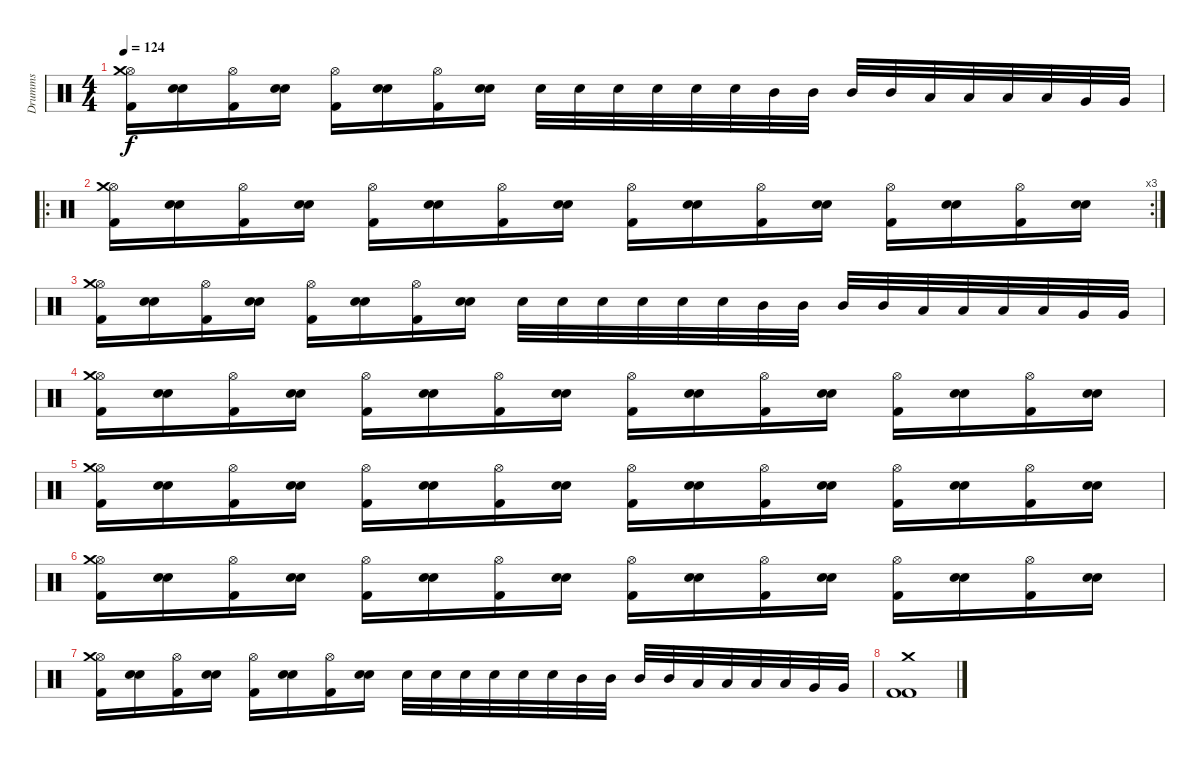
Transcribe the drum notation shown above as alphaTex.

\track ("Drumms" "Drumms") {instrument percussion}
\staff {score}
\articulation defaults
\ts (4 4)
\tempo 124
\clef neutral
\ks c
("Kick (hit) 2" "Hi-Hat (open)" "Crash medium (hit)").16{dy f} ("Snare (hit) 2" "Snare (hit) 2").16 ("Kick (hit) 2" "Hi-Hat (open)").16 ("Snare (hit) 2" "Snare (hit) 2").16 ("Kick (hit) 2" "Hi-Hat (open)").16 ("Snare (hit) 2" "Snare (hit) 2").16 ("Kick (hit) 2" "Hi-Hat (open)").16 ("Snare (hit) 2" "Snare (hit) 2").16 "Snare (hit) 2".32 "Snare (hit) 2".32 "Snare (hit) 2".32 "Snare (hit) 2".32 "Snare (hit) 2".32 "Snare (hit) 2".32 "Mid Tom (hit)".32 "Mid Tom (hit)".32 "Mid Tom (hit)".32 "Mid Tom (hit)".32 "Low Tom (hit)".32 "Low Tom (hit)".32 "Low Tom (hit)".32 "Low Tom (hit)".32 "Very Low Tom (hit)".32 "Very Low Tom (hit)".32 |
\ro
\rc 3
("Kick (hit) 2" "Hi-Hat (open)" "Crash medium (hit)").16 ("Snare (hit) 2" "Snare (hit) 2").16 ("Kick (hit) 2" "Hi-Hat (open)").16 ("Snare (hit) 2" "Snare (hit) 2").16 ("Kick (hit) 2" "Hi-Hat (open)").16 ("Snare (hit) 2" "Snare (hit) 2").16 ("Kick (hit) 2" "Hi-Hat (open)").16 ("Snare (hit) 2" "Snare (hit) 2").16 ("Kick (hit) 2" "Hi-Hat (open)").16 ("Snare (hit) 2" "Snare (hit) 2").16 ("Kick (hit) 2" "Hi-Hat (open)").16 ("Snare (hit) 2" "Snare (hit) 2").16 ("Kick (hit) 2" "Hi-Hat (open)").16 ("Snare (hit) 2" "Snare (hit) 2").16 ("Kick (hit) 2" "Hi-Hat (open)").16 ("Snare (hit) 2" "Snare (hit) 2").16 |
("Kick (hit) 2" "Hi-Hat (open)" "Crash medium (hit)").16 ("Snare (hit) 2" "Snare (hit) 2").16 ("Kick (hit) 2" "Hi-Hat (open)").16 ("Snare (hit) 2" "Snare (hit) 2").16 ("Kick (hit) 2" "Hi-Hat (open)").16 ("Snare (hit) 2" "Snare (hit) 2").16 ("Kick (hit) 2" "Hi-Hat (open)").16 ("Snare (hit) 2" "Snare (hit) 2").16 "Snare (hit) 2".32 "Snare (hit) 2".32 "Snare (hit) 2".32 "Snare (hit) 2".32 "Snare (hit) 2".32 "Snare (hit) 2".32 "Mid Tom (hit)".32 "Mid Tom (hit)".32 "Mid Tom (hit)".32 "Mid Tom (hit)".32 "Low Tom (hit)".32 "Low Tom (hit)".32 "Low Tom (hit)".32 "Low Tom (hit)".32 "Very Low Tom (hit)".32 "Very Low Tom (hit)".32 |
("Kick (hit) 2" "Hi-Hat (open)" "Crash medium (hit)").16 ("Snare (hit) 2" "Snare (hit) 2").16 ("Kick (hit) 2" "Hi-Hat (open)").16 ("Snare (hit) 2" "Snare (hit) 2").16 ("Kick (hit) 2" "Hi-Hat (open)").16 ("Snare (hit) 2" "Snare (hit) 2").16 ("Kick (hit) 2" "Hi-Hat (open)").16 ("Snare (hit) 2" "Snare (hit) 2").16 ("Kick (hit) 2" "Hi-Hat (open)").16 ("Snare (hit) 2" "Snare (hit) 2").16 ("Kick (hit) 2" "Hi-Hat (open)").16 ("Snare (hit) 2" "Snare (hit) 2").16 ("Kick (hit) 2" "Hi-Hat (open)").16 ("Snare (hit) 2" "Snare (hit) 2").16 ("Kick (hit) 2" "Hi-Hat (open)").16 ("Snare (hit) 2" "Snare (hit) 2").16 |
("Kick (hit) 2" "Hi-Hat (open)" "Crash medium (hit)").16 ("Snare (hit) 2" "Snare (hit) 2").16 ("Kick (hit) 2" "Hi-Hat (open)").16 ("Snare (hit) 2" "Snare (hit) 2").16 ("Kick (hit) 2" "Hi-Hat (open)").16 ("Snare (hit) 2" "Snare (hit) 2").16 ("Kick (hit) 2" "Hi-Hat (open)").16 ("Snare (hit) 2" "Snare (hit) 2").16 ("Kick (hit) 2" "Hi-Hat (open)").16 ("Snare (hit) 2" "Snare (hit) 2").16 ("Kick (hit) 2" "Hi-Hat (open)").16 ("Snare (hit) 2" "Snare (hit) 2").16 ("Kick (hit) 2" "Hi-Hat (open)").16 ("Snare (hit) 2" "Snare (hit) 2").16 ("Kick (hit) 2" "Hi-Hat (open)").16 ("Snare (hit) 2" "Snare (hit) 2").16 |
("Kick (hit) 2" "Hi-Hat (open)" "Crash medium (hit)").16 ("Snare (hit) 2" "Snare (hit) 2").16 ("Kick (hit) 2" "Hi-Hat (open)").16 ("Snare (hit) 2" "Snare (hit) 2").16 ("Kick (hit) 2" "Hi-Hat (open)").16 ("Snare (hit) 2" "Snare (hit) 2").16 ("Kick (hit) 2" "Hi-Hat (open)").16 ("Snare (hit) 2" "Snare (hit) 2").16 ("Kick (hit) 2" "Hi-Hat (open)").16 ("Snare (hit) 2" "Snare (hit) 2").16 ("Kick (hit) 2" "Hi-Hat (open)").16 ("Snare (hit) 2" "Snare (hit) 2").16 ("Kick (hit) 2" "Hi-Hat (open)").16 ("Snare (hit) 2" "Snare (hit) 2").16 ("Kick (hit) 2" "Hi-Hat (open)").16 ("Snare (hit) 2" "Snare (hit) 2").16 |
("Kick (hit) 2" "Hi-Hat (open)" "Crash medium (hit)").16 ("Snare (hit) 2" "Snare (hit) 2").16 ("Kick (hit) 2" "Hi-Hat (open)").16 ("Snare (hit) 2" "Snare (hit) 2").16 ("Kick (hit) 2" "Hi-Hat (open)").16 ("Snare (hit) 2" "Snare (hit) 2").16 ("Kick (hit) 2" "Hi-Hat (open)").16 ("Snare (hit) 2" "Snare (hit) 2").16 "Snare (hit) 2".32 "Snare (hit) 2".32 "Snare (hit) 2".32 "Snare (hit) 2".32 "Snare (hit) 2".32 "Snare (hit) 2".32 "Mid Tom (hit)".32 "Mid Tom (hit)".32 "Mid Tom (hit)".32 "Mid Tom (hit)".32 "Low Tom (hit)".32 "Low Tom (hit)".32 "Low Tom (hit)".32 "Low Tom (hit)".32 "Very Low Tom (hit)".32 "Very Low Tom (hit)".32 |
("Kick (hit) 2" "Kick (hit) 2" "Crash medium (hit)").1
